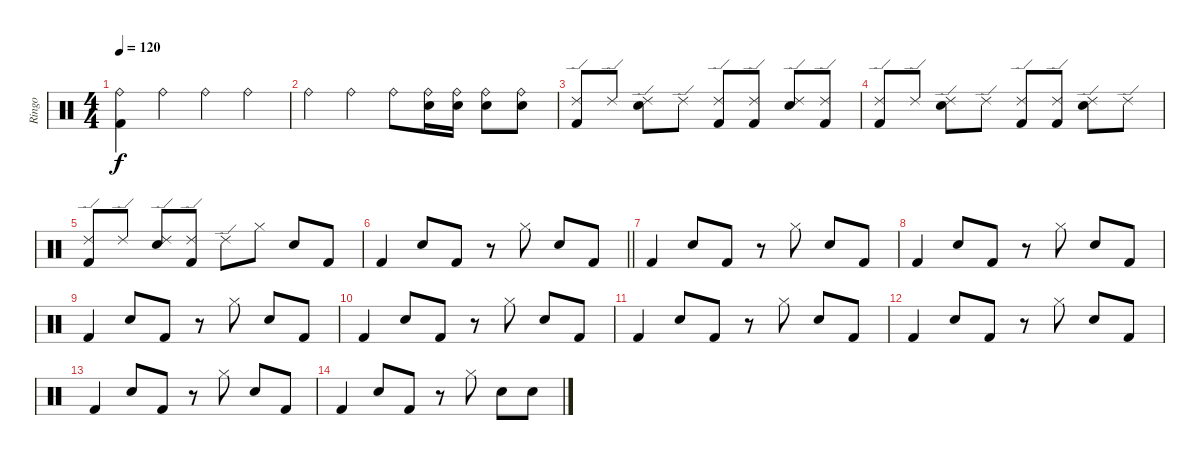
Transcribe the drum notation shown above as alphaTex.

\track ("Ringo" "Ringo") {instrument percussion}
\staff {score}
\articulation defaults
\ts (4 4)
\tempo 120
\clef neutral
\ks c
("Ride (bell)" "Kick (hit) 2").4{dy f} "Ride (bell)".4 "Ride (bell)".4 "Ride (bell)".4 |
"Ride (bell)".4 "Ride (bell)".4 "Ride (bell)".8 ("Ride (bell)" "Snare (hit) 2").16 ("Ride (bell)" "Snare (hit) 2").16 ("Ride (bell)" "Snare (hit) 2").8 ("Ride (bell)" "Snare (hit) 2").8 |
("Ride (edge) 2" "Kick (hit) 2").8 "Ride (edge) 2".8 ("Ride (edge) 2" "Snare (hit) 2").8 "Ride (edge) 2".8 ("Ride (edge) 2" "Kick (hit) 2").8 ("Ride (edge) 2" "Kick (hit) 2").8 ("Ride (edge) 2" "Snare (hit) 2").8 ("Ride (edge) 2" "Kick (hit) 2").8 |
("Ride (edge) 2" "Kick (hit) 2").8 "Ride (edge) 2".8 ("Ride (edge) 2" "Snare (hit) 2").8 "Ride (edge) 2".8 ("Ride (edge) 2" "Kick (hit) 2").8 ("Ride (edge) 2" "Kick (hit) 2").8 ("Ride (edge) 2" "Snare (hit) 2").8 "Ride (edge) 2".8 |
("Ride (edge) 2" "Kick (hit) 2").8 "Ride (edge) 2".8 ("Ride (edge) 2" "Snare (hit) 2").8 ("Ride (edge) 2" "Kick (hit) 2").8 "Ride (edge) 2".8 "Hi-Hat (closed)".8 "Snare (hit) 2".8 "Kick (hit) 2".8 |
\barLineRight lightlight "Kick (hit) 2".4 "Snare (hit) 2".8 "Kick (hit) 2".8
r.8 "Hi-Hat (closed)".8 "Snare (hit) 2".8 "Kick (hit) 2".8 |
"Kick (hit) 2".4 "Snare (hit) 2".8 "Kick (hit) 2".8 r.8 "Hi-Hat (closed)".8 "Snare (hit) 2".8 "Kick (hit) 2".8 |
"Kick (hit) 2".4 "Snare (hit) 2".8 "Kick (hit) 2".8 r.8 "Hi-Hat (closed)".8 "Snare (hit) 2".8 "Kick (hit) 2".8 |
"Kick (hit) 2".4 "Snare (hit) 2".8 "Kick (hit) 2".8 r.8 "Hi-Hat (closed)".8 "Snare (hit) 2".8 "Kick (hit) 2".8 |
"Kick (hit) 2".4 "Snare (hit) 2".8 "Kick (hit) 2".8 r.8 "Hi-Hat (closed)".8 "Snare (hit) 2".8 "Kick (hit) 2".8 |
"Kick (hit) 2".4 "Snare (hit) 2".8 "Kick (hit) 2".8 r.8 "Hi-Hat (closed)".8 "Snare (hit) 2".8 "Kick (hit) 2".8 |
"Kick (hit) 2".4 "Snare (hit) 2".8 "Kick (hit) 2".8 r.8 "Hi-Hat (closed)".8 "Snare (hit) 2".8 "Kick (hit) 2".8 |
"Kick (hit) 2".4 "Snare (hit) 2".8 "Kick (hit) 2".8 r.8 "Hi-Hat (closed)".8 "Snare (hit) 2".8 "Kick (hit) 2".8 |
"Kick (hit) 2".4 "Snare (hit) 2".8 "Kick (hit) 2".8 r.8 "Hi-Hat (closed)".8 "Snare (hit) 2".8 "Snare (hit) 2".8
